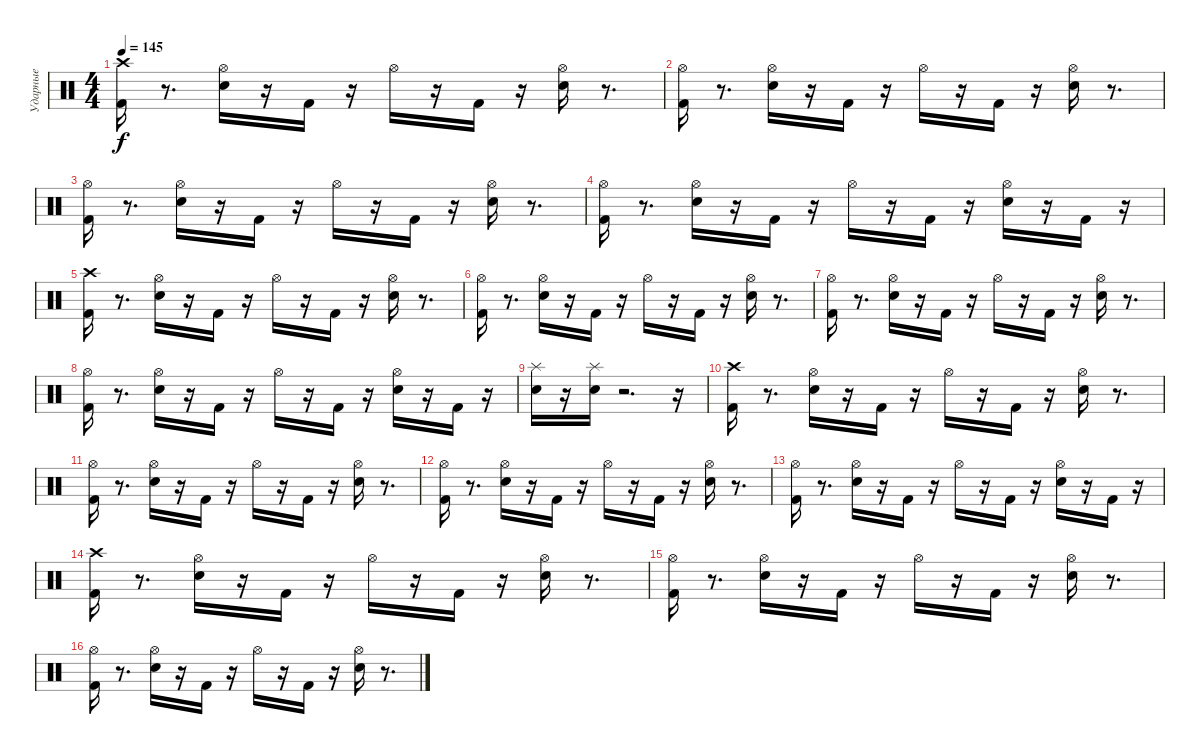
\track ("Ударные" "Ударные") {instrument percussion}
\staff {score}
\articulation defaults
\ts (4 4)
\tempo 145
\clef neutral
\ks c
("Kick (hit) 2" "Crash high (hit)").16{dy f} r.8{d} ("Electric Snare (hit)" "Hi-Hat (open)").16 r.16 "Kick (hit) 2".16 r.16 "Hi-Hat (open)".16 r.16 "Kick (hit) 2".16 r.16 ("Hi-Hat (open)" "Electric Snare (hit)").16 r.8{d} |
("Hi-Hat (open)" "Kick (hit) 2").16 r.8{d} ("Electric Snare (hit)" "Hi-Hat (open)").16 r.16 "Kick (hit) 2".16 r.16 "Hi-Hat (open)".16 r.16 "Kick (hit) 2".16 r.16 ("Hi-Hat (open)" "Electric Snare (hit)").16 r.8{d} |
("Hi-Hat (open)" "Kick (hit) 2").16 r.8{d} ("Electric Snare (hit)" "Hi-Hat (open)").16 r.16 "Kick (hit) 2".16 r.16 "Hi-Hat (open)".16 r.16 "Kick (hit) 2".16 r.16 ("Electric Snare (hit)" "Hi-Hat (open)").16 r.8{d} |
("Hi-Hat (open)" "Kick (hit) 2").16 r.8{d} ("Electric Snare (hit)" "Hi-Hat (open)").16 r.16 "Kick (hit) 2".16 r.16 "Hi-Hat (open)".16 r.16 "Kick (hit) 2".16 r.16 ("Electric Snare (hit)" "Hi-Hat (open)").16 r.16 "Kick (hit) 2".16 r.16 |
("Kick (hit) 2" "Crash high (hit)").16 r.8{d} ("Electric Snare (hit)" "Hi-Hat (open)").16 r.16 "Kick (hit) 2".16 r.16 "Hi-Hat (open)".16 r.16 "Kick (hit) 2".16 r.16 ("Electric Snare (hit)" "Hi-Hat (open)").16 r.8{d} |
("Hi-Hat (open)" "Kick (hit) 2").16 r.8{d} ("Hi-Hat (open)" "Electric Snare (hit)").16 r.16 "Kick (hit) 2".16 r.16 "Hi-Hat (open)".16 r.16 "Kick (hit) 2".16 r.16 ("Hi-Hat (open)" "Electric Snare (hit)").16 r.8{d} |
("Hi-Hat (open)" "Kick (hit) 2").16 r.8{d} ("Electric Snare (hit)" "Hi-Hat (open)").16 r.16 "Kick (hit) 2".16 r.16 "Hi-Hat (open)".16 r.16 "Kick (hit) 2".16 r.16 ("Hi-Hat (open)" "Electric Snare (hit)").16 r.8{d} |
("Hi-Hat (open)" "Kick (hit) 2").16 r.8{d} ("Electric Snare (hit)" "Hi-Hat (open)").16 r.16 "Kick (hit) 2".16 r.16 "Hi-Hat (open)".16 r.16 "Kick (hit) 2".16 r.16 ("Electric Snare (hit)" "Hi-Hat (open)").16 r.16 "Kick (hit) 2".16 r.16 |
("Splash (hit)" "Electric Snare (hit)").16 r.16 ("Electric Snare (hit)" "Splash (hit)").16 r.2{d} r.16 |
("Kick (hit) 2" "Crash high (hit)").16 r.8{d} ("Hi-Hat (open)" "Electric Snare (hit)").16 r.16 "Kick (hit) 2".16 r.16 "Hi-Hat (open)".16 r.16 "Kick (hit) 2".16 r.16 ("Electric Snare (hit)" "Hi-Hat (open)").16 r.8{d} |
("Hi-Hat (open)" "Kick (hit) 2").16 r.8{d} ("Hi-Hat (open)" "Electric Snare (hit)").16 r.16 "Kick (hit) 2".16 r.16 "Hi-Hat (open)".16 r.16 "Kick (hit) 2".16 r.16 ("Electric Snare (hit)" "Hi-Hat (open)").16 r.8{d} |
("Kick (hit) 2" "Hi-Hat (open)").16 r.8{d} ("Electric Snare (hit)" "Hi-Hat (open)").16 r.16 "Kick (hit) 2".16 r.16 "Hi-Hat (open)".16 r.16 "Kick (hit) 2".16 r.16 ("Hi-Hat (open)" "Electric Snare (hit)").16 r.8{d} |
("Hi-Hat (open)" "Kick (hit) 2").16 r.8{d} ("Hi-Hat (open)" "Electric Snare (hit)").16 r.16 "Kick (hit) 2".16 r.16 "Hi-Hat (open)".16 r.16 "Kick (hit) 2".16 r.16 ("Electric Snare (hit)" "Hi-Hat (open)").16 r.16 "Kick (hit) 2".16 r.16 |
("Kick (hit) 2" "Crash high (hit)").16 r.8{d} ("Electric Snare (hit)" "Hi-Hat (open)").16 r.16 "Kick (hit) 2".16 r.16 "Hi-Hat (open)".16 r.16 "Kick (hit) 2".16 r.16 ("Hi-Hat (open)" "Electric Snare (hit)").16 r.8{d} |
("Kick (hit) 2" "Hi-Hat (open)").16 r.8{d} ("Hi-Hat (open)" "Electric Snare (hit)").16 r.16 "Kick (hit) 2".16 r.16 "Hi-Hat (open)".16 r.16 "Kick (hit) 2".16 r.16 ("Hi-Hat (open)" "Electric Snare (hit)").16 r.8{d} |
("Hi-Hat (open)" "Kick (hit) 2").16 r.8{d} ("Electric Snare (hit)" "Hi-Hat (open)").16 r.16 "Kick (hit) 2".16 r.16 "Hi-Hat (open)".16 r.16 "Kick (hit) 2".16 r.16 ("Hi-Hat (open)" "Electric Snare (hit)").16 r.8{d}
